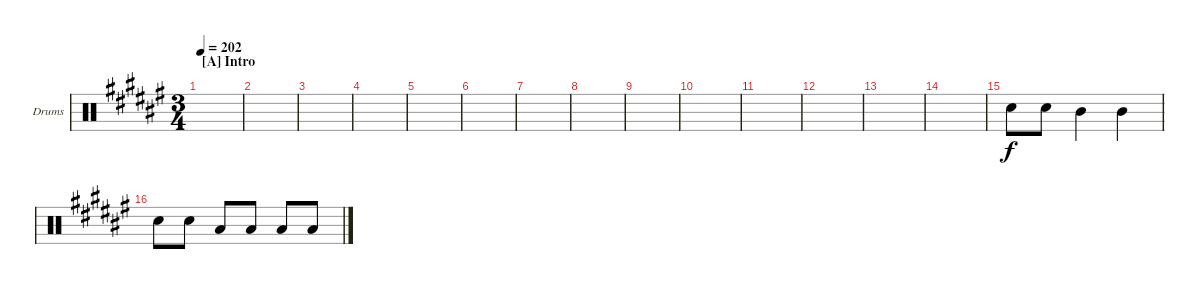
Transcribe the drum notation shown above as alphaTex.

\defaultSystemsLayout 4
\bracketExtendMode groupsimilarinstruments
\firstSystemTrackNameOrientation horizontal
\otherSystemsTrackNameOrientation horizontal
\track ("Drumkit" "Drums") {instrument percussion}
\staff {score}
\articulation defaults
\ts (3 4)
\section ("A" "Intro")
\tempo 202
\clef neutral
\ks f#
|
|
|
|
|
|
|
|
|
|
|
|
|
|
"Snare (hit) 2".8 "Snare (hit) 2".8 "Mid Tom (hit)".4 "Mid Tom (hit)".4 |
"Snare (hit) 2".8 "Snare (hit) 2".8 "Low Tom (hit)".8 "Low Tom (hit)".8 "Low Tom (hit)".8 "Low Tom (hit)".8
